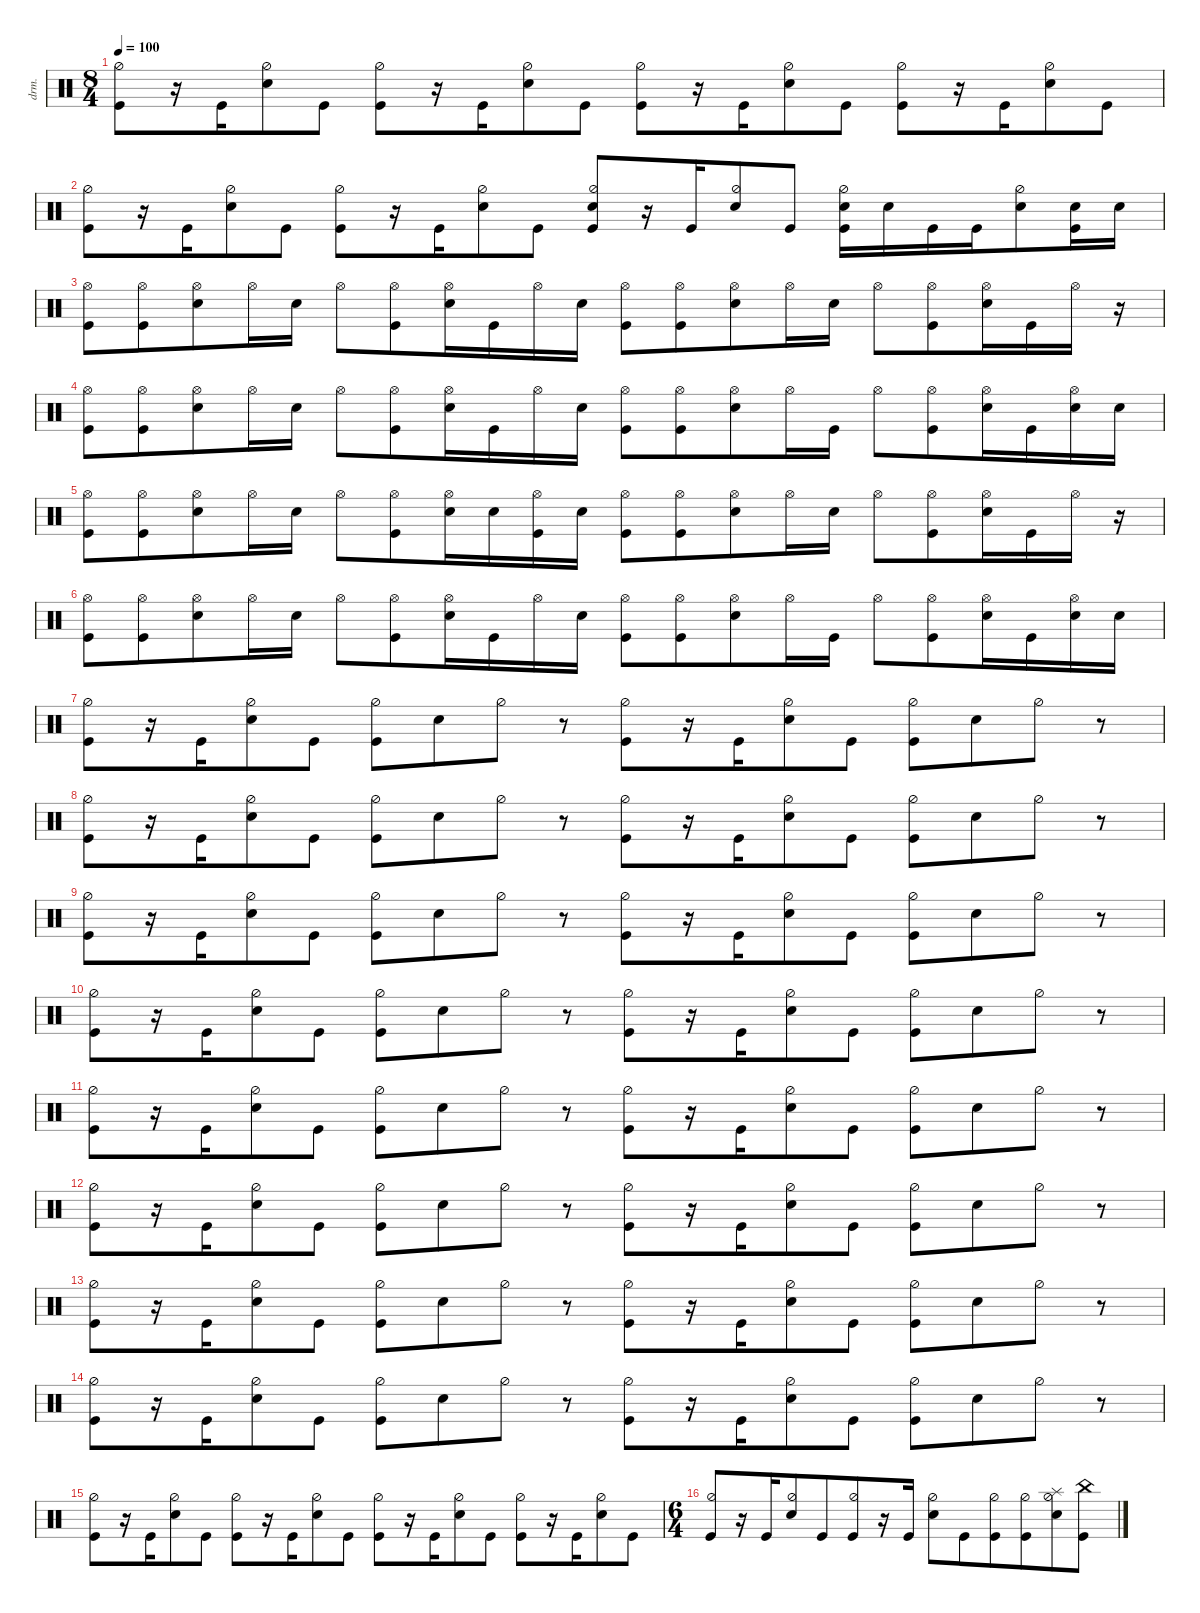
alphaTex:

\defaultSystemsLayout 4
\hideDynamics
\bracketExtendMode nobrackets
\otherSystemsTrackNameOrientation horizontal
\track ("Drumkit" "drm.") {instrument percussion}
\staff {score}
\articulation defaults
\ts (8 4)
\beaming (8 4 4 4 4)
\tempo 100
\clef neutral
\ks c
("Kick (hit)" "Hi-Hat (half)").8{dy mf beam Down} r.16{beam Down} "Kick (hit)".16{beam Down} ("Hi-Hat (half)" "Snare (hit) 2").8{beam Down} "Kick (hit)".8{beam Down} ("Hi-Hat (half)" "Kick (hit)").8{beam Down} r.16{beam Down} "Kick (hit)".16{beam Down} ("Hi-Hat (half)" "Snare (hit) 2").8{beam Down} "Kick (hit)".8{beam Down} ("Kick (hit)" "Hi-Hat (half)").8{beam Down} r.16{beam Down} "Kick (hit)".16{beam Down} ("Hi-Hat (half)" "Snare (hit) 2").8{beam Down} "Kick (hit)".8{beam Down} ("Hi-Hat (half)" "Kick (hit)").8{beam Down} r.16{beam Down} "Kick (hit)".16{beam Down} ("Hi-Hat (half)" "Snare (hit) 2").8{beam Down} "Kick (hit)".8{beam Down} |
("Kick (hit)" "Hi-Hat (half)").8{beam Down} r.16{beam Down} "Kick (hit)".16{beam Down} ("Hi-Hat (half)" "Snare (hit) 2").8{beam Down} "Kick (hit)".8{beam Down} ("Hi-Hat (half)" "Kick (hit)").8{beam Down} r.16{beam Down} "Kick (hit)".16{beam Down} ("Hi-Hat (half)" "Snare (hit) 2").8{beam Down} "Kick (hit)".8{beam Down} ("Kick (hit)" "Hi-Hat (half)" "Snare (hit) 2").8{beam Up} r.16{beam Up} "Kick (hit)".16{beam Up} ("Hi-Hat (half)" "Snare (hit) 2").8{beam Up} "Kick (hit)".8{beam Up} ("Hi-Hat (half)" "Kick (hit)" "Snare (hit) 2").16{beam Down} "Snare (hit) 2".16{beam Down} "Kick (hit)".16{beam Down} "Kick (hit)".16{beam Down} ("Hi-Hat (half)" "Snare (hit) 2").8{beam Down} ("Kick (hit)" "Snare (hit) 2").16{beam Down} "Snare (hit) 2".16{beam Down} |
("Kick (hit)" "Hi-Hat (open)").8{beam Down} ("Hi-Hat (open)" "Kick (hit)").8{beam Down} ("Hi-Hat (open)" "Snare (hit) 2").8{beam Down} "Hi-Hat (open)".16{beam Down} "Snare (hit) 2".16{beam Down} "Hi-Hat (open)".8{beam Down} ("Hi-Hat (open)" "Kick (hit)").8{beam Down} ("Hi-Hat (open)" "Snare (hit) 2").16{beam Down} "Kick (hit)".16{beam Down} "Hi-Hat (open)".16{beam Down} "Snare (hit) 2".16{beam Down} ("Kick (hit)" "Hi-Hat (open)").8{beam Down} ("Hi-Hat (open)" "Kick (hit)").8{beam Down} ("Hi-Hat (open)" "Snare (hit) 2").8{beam Down} "Hi-Hat (open)".16{beam Down} "Snare (hit) 2".16{beam Down} "Hi-Hat (open)".8{beam Down} ("Hi-Hat (open)" "Kick (hit)").8{beam Down} ("Hi-Hat (open)" "Snare (hit) 2").16{beam Down} "Kick (hit)".16{beam Down} "Hi-Hat (open)".16{beam Down} r.16{beam Down} |
("Kick (hit)" "Hi-Hat (open)").8{beam Down} ("Hi-Hat (open)" "Kick (hit)").8{beam Down} ("Hi-Hat (open)" "Snare (hit) 2").8{beam Down} "Hi-Hat (open)".16{beam Down} "Snare (hit) 2".16{beam Down} "Hi-Hat (open)".8{beam Down} ("Hi-Hat (open)" "Kick (hit)").8{beam Down} ("Hi-Hat (open)" "Snare (hit) 2").16{beam Down} "Kick (hit)".16{beam Down} "Hi-Hat (open)".16{beam Down} "Snare (hit) 2".16{beam Down} ("Kick (hit)" "Hi-Hat (open)").8{beam Down} ("Hi-Hat (open)" "Kick (hit)").8{beam Down} ("Hi-Hat (open)" "Snare (hit) 2").8{beam Down} "Hi-Hat (open)".16{beam Down} "Kick (hit)".16{beam Down} "Hi-Hat (open)".8{beam Down} ("Hi-Hat (open)" "Kick (hit)").8{beam Down} ("Hi-Hat (open)" "Snare (hit) 2").16{beam Down} "Kick (hit)".16{beam Down} ("Hi-Hat (open)" "Snare (hit) 2").16{beam Down} "Snare (hit) 2".16{beam Down} |
("Kick (hit)" "Hi-Hat (open)").8{beam Down} ("Hi-Hat (open)" "Kick (hit)").8{beam Down} ("Hi-Hat (open)" "Snare (hit) 2").8{beam Down} "Hi-Hat (open)".16{beam Down} "Snare (hit) 2".16{beam Down} "Hi-Hat (open)".8{beam Down} ("Hi-Hat (open)" "Kick (hit)").8{beam Down} ("Hi-Hat (open)" "Snare (hit) 2").16{beam Down} "Snare (hit) 2".16{beam Down} ("Hi-Hat (open)" "Kick (hit)").16{beam Down} "Snare (hit) 2".16{beam Down} ("Kick (hit)" "Hi-Hat (open)").8{beam Down} ("Hi-Hat (open)" "Kick (hit)").8{beam Down} ("Hi-Hat (open)" "Snare (hit) 2").8{beam Down} "Hi-Hat (open)".16{beam Down} "Snare (hit) 2".16{beam Down} "Hi-Hat (open)".8{beam Down} ("Hi-Hat (open)" "Kick (hit)").8{beam Down} ("Hi-Hat (open)" "Snare (hit) 2").16{beam Down} "Kick (hit)".16{beam Down} "Hi-Hat (open)".16{beam Down} r.16{beam Down} |
("Kick (hit)" "Hi-Hat (open)").8{beam Down} ("Hi-Hat (open)" "Kick (hit)").8{beam Down} ("Hi-Hat (open)" "Snare (hit) 2").8{beam Down} "Hi-Hat (open)".16{beam Down} "Snare (hit) 2".16{beam Down} "Hi-Hat (open)".8{beam Down} ("Hi-Hat (open)" "Kick (hit)").8{beam Down} ("Hi-Hat (open)" "Snare (hit) 2").16{beam Down} "Kick (hit)".16{beam Down} "Hi-Hat (open)".16{beam Down} "Snare (hit) 2".16{beam Down} ("Kick (hit)" "Hi-Hat (open)").8{beam Down} ("Hi-Hat (open)" "Kick (hit)").8{beam Down} ("Hi-Hat (open)" "Snare (hit) 2").8{beam Down} "Hi-Hat (open)".16{beam Down} "Kick (hit)".16{beam Down} "Hi-Hat (open)".8{beam Down} ("Hi-Hat (open)" "Kick (hit)").8{beam Down} ("Hi-Hat (open)" "Snare (hit) 2").16{beam Down} "Kick (hit)".16{beam Down} ("Hi-Hat (open)" "Snare (hit) 2").16{beam Down} "Snare (hit) 2".16{beam Down} |
("Kick (hit)" "Hi-Hat (half)").8{beam Down} r.16{beam Down} "Kick (hit)".16{beam Down} ("Hi-Hat (half)" "Snare (hit) 2").8{beam Down} "Kick (hit)".8{beam Down} ("Hi-Hat (half)" "Kick (hit)").8{beam Down} "Snare (hit) 2".8{beam Down} "Hi-Hat (half)".8{beam Down} r.8{beam Down} ("Hi-Hat (half)" "Kick (hit)").8{beam Down} r.16{beam Down} "Kick (hit)".16{beam Down} ("Hi-Hat (half)" "Snare (hit) 2").8{beam Down} "Kick (hit)".8{beam Down} ("Hi-Hat (half)" "Kick (hit)").8{beam Down} "Snare (hit) 2".8{beam Down} "Hi-Hat (half)".8{beam Down} r.8{beam Down} |
("Kick (hit)" "Hi-Hat (half)").8{beam Down} r.16{beam Down} "Kick (hit)".16{beam Down} ("Hi-Hat (half)" "Snare (hit) 2").8{beam Down} "Kick (hit)".8{beam Down} ("Hi-Hat (half)" "Kick (hit)").8{beam Down} "Snare (hit) 2".8{beam Down} "Hi-Hat (half)".8{beam Down} r.8{beam Down} ("Hi-Hat (half)" "Kick (hit)").8{beam Down} r.16{beam Down} "Kick (hit)".16{beam Down} ("Hi-Hat (half)" "Snare (hit) 2").8{beam Down} "Kick (hit)".8{beam Down} ("Hi-Hat (half)" "Kick (hit)").8{beam Down} "Snare (hit) 2".8{beam Down} "Hi-Hat (half)".8{beam Down} r.8{beam Down} |
("Kick (hit)" "Hi-Hat (half)").8{beam Down} r.16{beam Down} "Kick (hit)".16{beam Down} ("Hi-Hat (half)" "Snare (hit) 2").8{beam Down} "Kick (hit)".8{beam Down} ("Hi-Hat (half)" "Kick (hit)").8{beam Down} "Snare (hit) 2".8{beam Down} "Hi-Hat (half)".8{beam Down} r.8{beam Down} ("Hi-Hat (half)" "Kick (hit)").8{beam Down} r.16{beam Down} "Kick (hit)".16{beam Down} ("Hi-Hat (half)" "Snare (hit) 2").8{beam Down} "Kick (hit)".8{beam Down} ("Hi-Hat (half)" "Kick (hit)").8{beam Down} "Snare (hit) 2".8{beam Down} "Hi-Hat (half)".8{beam Down} r.8{beam Down} |
("Kick (hit)" "Hi-Hat (half)").8{beam Down} r.16{beam Down} "Kick (hit)".16{beam Down} ("Hi-Hat (half)" "Snare (hit) 2").8{beam Down} "Kick (hit)".8{beam Down} ("Hi-Hat (half)" "Kick (hit)").8{beam Down} "Snare (hit) 2".8{beam Down} "Hi-Hat (half)".8{beam Down} r.8{beam Down} ("Hi-Hat (half)" "Kick (hit)").8{beam Down} r.16{beam Down} "Kick (hit)".16{beam Down} ("Hi-Hat (half)" "Snare (hit) 2").8{beam Down} "Kick (hit)".8{beam Down} ("Hi-Hat (half)" "Kick (hit)").8{beam Down} "Snare (hit) 2".8{beam Down} "Hi-Hat (half)".8{beam Down} r.8{beam Down} |
("Kick (hit)" "Hi-Hat (half)").8{beam Down} r.16{beam Down} "Kick (hit)".16{beam Down} ("Hi-Hat (half)" "Snare (hit) 2").8{beam Down} "Kick (hit)".8{beam Down} ("Hi-Hat (half)" "Kick (hit)").8{beam Down} "Snare (hit) 2".8{beam Down} "Hi-Hat (half)".8{beam Down} r.8{beam Down} ("Hi-Hat (half)" "Kick (hit)").8{beam Down} r.16{beam Down} "Kick (hit)".16{beam Down} ("Hi-Hat (half)" "Snare (hit) 2").8{beam Down} "Kick (hit)".8{beam Down} ("Hi-Hat (half)" "Kick (hit)").8{beam Down} "Snare (hit) 2".8{beam Down} "Hi-Hat (half)".8{beam Down} r.8{beam Down} |
("Kick (hit)" "Hi-Hat (half)").8{beam Down} r.16{beam Down} "Kick (hit)".16{beam Down} ("Hi-Hat (half)" "Snare (hit) 2").8{beam Down} "Kick (hit)".8{beam Down} ("Hi-Hat (half)" "Kick (hit)").8{beam Down} "Snare (hit) 2".8{beam Down} "Hi-Hat (half)".8{beam Down} r.8{beam Down} ("Hi-Hat (half)" "Kick (hit)").8{beam Down} r.16{beam Down} "Kick (hit)".16{beam Down} ("Hi-Hat (half)" "Snare (hit) 2").8{beam Down} "Kick (hit)".8{beam Down} ("Hi-Hat (half)" "Kick (hit)").8{beam Down} "Snare (hit) 2".8{beam Down} "Hi-Hat (half)".8{beam Down} r.8{beam Down} |
("Kick (hit)" "Hi-Hat (half)").8{beam Down} r.16{beam Down} "Kick (hit)".16{beam Down} ("Hi-Hat (half)" "Snare (hit) 2").8{beam Down} "Kick (hit)".8{beam Down} ("Hi-Hat (half)" "Kick (hit)").8{beam Down} "Snare (hit) 2".8{beam Down} "Hi-Hat (half)".8{beam Down} r.8{beam Down} ("Hi-Hat (half)" "Kick (hit)").8{beam Down} r.16{beam Down} "Kick (hit)".16{beam Down} ("Hi-Hat (half)" "Snare (hit) 2").8{beam Down} "Kick (hit)".8{beam Down} ("Hi-Hat (half)" "Kick (hit)").8{beam Down} "Snare (hit) 2".8{beam Down} "Hi-Hat (half)".8{beam Down} r.8{beam Down} |
("Kick (hit)" "Hi-Hat (half)").8{beam Down} r.16{beam Down} "Kick (hit)".16{beam Down} ("Hi-Hat (half)" "Snare (hit) 2").8{beam Down} "Kick (hit)".8{beam Down} ("Hi-Hat (half)" "Kick (hit)").8{beam Down} "Snare (hit) 2".8{beam Down} "Hi-Hat (half)".8{beam Down} r.8{beam Down} ("Hi-Hat (half)" "Kick (hit)").8{beam Down} r.16{beam Down} "Kick (hit)".16{beam Down} ("Hi-Hat (half)" "Snare (hit) 2").8{beam Down} "Kick (hit)".8{beam Down} ("Hi-Hat (half)" "Kick (hit)").8{beam Down} "Snare (hit) 2".8{beam Down} "Hi-Hat (half)".8{beam Down} r.8{beam Down} |
("Kick (hit)" "Hi-Hat (half)").8{beam Down} r.16{beam Down} "Kick (hit)".16{beam Down} ("Hi-Hat (half)" "Snare (hit) 2").8{beam Down} "Kick (hit)".8{beam Down} ("Hi-Hat (half)" "Kick (hit)").8{beam Down} r.16{beam Down} "Kick (hit)".16{beam Down} ("Hi-Hat (half)" "Snare (hit) 2").8{beam Down} "Kick (hit)".8{beam Down} ("Kick (hit)" "Hi-Hat (half)").8{beam Down} r.16{beam Down} "Kick (hit)".16{beam Down} ("Hi-Hat (half)" "Snare (hit) 2").8{beam Down} "Kick (hit)".8{beam Down} ("Hi-Hat (half)" "Kick (hit)").8{beam Down} r.16{beam Down} "Kick (hit)".16{beam Down} ("Hi-Hat (half)" "Snare (hit) 2").8{beam Down} "Kick (hit)".8{beam Down} |
\ts (6 4)
\beaming (8 6 6)
("Kick (hit)" "Hi-Hat (half)").8{beam Up} r.16{beam Up} "Kick (hit)".16{beam Up} ("Hi-Hat (half)" "Snare (hit) 2").8{beam Up} "Kick (hit)".8{beam Up} ("Hi-Hat (half)" "Kick (hit)").8{beam Up} r.16{beam Up} "Kick (hit)".16{beam Up} ("Hi-Hat (half)" "Snare (hit) 2").8{beam Down} "Kick (hit)".8{beam Down} ("Kick (hit)" "Hi-Hat (half)").8{beam Down} ("Kick (hit)" "Hi-Hat (half)").8{beam Down} ("Hi-Hat (half)" "Snare (hit) 2" "Splash (hit)").8{beam Down} ("Kick (hit)" "China (hit)").8{beam Down}
